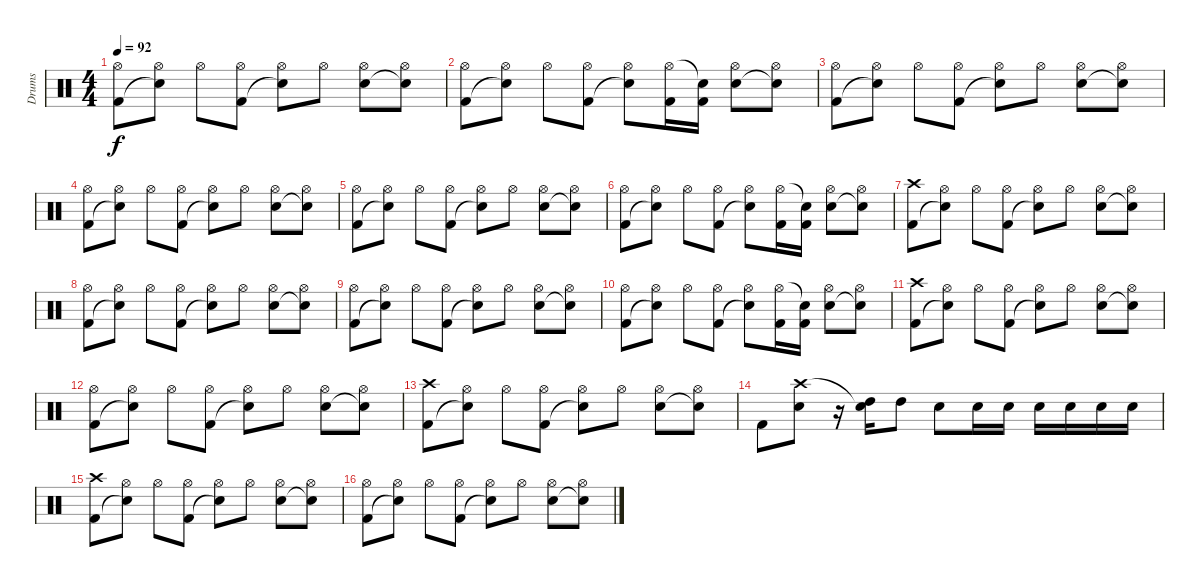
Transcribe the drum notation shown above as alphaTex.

\track ("Drums" "Drums") {instrument percussion}
\staff {score}
\articulation defaults
\ts (4 4)
\tempo 92
\clef neutral
\ks c
("Hi-Hat (open)" "Kick (hit) 2").8{dy f} ("Hi-Hat (open)" "Snare (hit)"{t}).8 "Hi-Hat (open)".8 ("Hi-Hat (open)" "Kick (hit) 2").8 ("Hi-Hat (open)" "Snare (hit)"{t}).8 "Hi-Hat (open)".8 ("Hi-Hat (open)" "Snare (hit) 2").8 ("Hi-Hat (open)" "Snare (hit)"{t}).8 |
("Hi-Hat (open)" "Kick (hit) 2").8 ("Hi-Hat (open)" "Snare (hit)"{t}).8 "Hi-Hat (open)".8 ("Hi-Hat (open)" "Kick (hit) 2").8 ("Hi-Hat (open)" "Snare (hit)"{t}).8 ("Hi-Hat (open)" "Kick (hit) 2").16 ("Snare (hit)"{t} "Kick (hit) 2").16 ("Hi-Hat (open)" "Snare (hit) 2").8 ("Hi-Hat (open)" "Snare (hit)"{t}).8 |
("Hi-Hat (open)" "Kick (hit) 2").8 ("Hi-Hat (open)" "Snare (hit)"{t}).8 "Hi-Hat (open)".8 ("Hi-Hat (open)" "Kick (hit) 2").8 ("Hi-Hat (open)" "Snare (hit)"{t}).8 "Hi-Hat (open)".8 ("Hi-Hat (open)" "Snare (hit) 2").8 ("Hi-Hat (open)" "Snare (hit)"{t}).8 |
("Hi-Hat (open)" "Kick (hit) 2").8 ("Hi-Hat (open)" "Snare (hit)"{t}).8 "Hi-Hat (open)".8 ("Hi-Hat (open)" "Kick (hit) 2").8 ("Hi-Hat (open)" "Snare (hit)"{t}).8 "Hi-Hat (open)".8 ("Hi-Hat (open)" "Snare (hit) 2").8 ("Hi-Hat (open)" "Snare (hit)"{t}).8 |
("Hi-Hat (open)" "Kick (hit) 2").8 ("Hi-Hat (open)" "Snare (hit)"{t}).8 "Hi-Hat (open)".8 ("Hi-Hat (open)" "Kick (hit) 2").8 ("Hi-Hat (open)" "Snare (hit)"{t}).8 "Hi-Hat (open)".8 ("Hi-Hat (open)" "Snare (hit) 2").8 ("Hi-Hat (open)" "Snare (hit)"{t}).8 |
("Hi-Hat (open)" "Kick (hit) 2").8 ("Hi-Hat (open)" "Snare (hit)"{t}).8 "Hi-Hat (open)".8 ("Hi-Hat (open)" "Kick (hit) 2").8 ("Hi-Hat (open)" "Snare (hit)"{t}).8 ("Hi-Hat (open)" "Kick (hit) 2").16 ("Snare (hit)"{t} "Kick (hit) 2").16 ("Hi-Hat (open)" "Snare (hit) 2").8 ("Hi-Hat (open)" "Snare (hit)"{t}).8 |
("Crash high (hit)" "Kick (hit) 2").8 ("Hi-Hat (open)" "Snare (hit)"{t}).8 "Hi-Hat (open)".8 ("Hi-Hat (open)" "Kick (hit) 2").8 ("Hi-Hat (open)" "Snare (hit)"{t}).8 "Hi-Hat (open)".8 ("Hi-Hat (open)" "Snare (hit) 2").8 ("Hi-Hat (open)" "Snare (hit)"{t}).8 |
("Hi-Hat (open)" "Kick (hit) 2").8 ("Hi-Hat (open)" "Snare (hit)"{t}).8 "Hi-Hat (open)".8 ("Hi-Hat (open)" "Kick (hit) 2").8 ("Hi-Hat (open)" "Snare (hit)"{t}).8 "Hi-Hat (open)".8 ("Hi-Hat (open)" "Snare (hit) 2").8 ("Hi-Hat (open)" "Snare (hit)"{t}).8 |
("Hi-Hat (open)" "Kick (hit) 2").8 ("Hi-Hat (open)" "Snare (hit)"{t}).8 "Hi-Hat (open)".8 ("Hi-Hat (open)" "Kick (hit) 2").8 ("Hi-Hat (open)" "Snare (hit)"{t}).8 "Hi-Hat (open)".8 ("Hi-Hat (open)" "Snare (hit) 2").8 ("Hi-Hat (open)" "Snare (hit)"{t}).8 |
("Hi-Hat (open)" "Kick (hit) 2").8 ("Hi-Hat (open)" "Snare (hit)"{t}).8 "Hi-Hat (open)".8 ("Hi-Hat (open)" "Kick (hit) 2").8 ("Hi-Hat (open)" "Snare (hit)"{t}).8 ("Hi-Hat (open)" "Kick (hit) 2").16 ("Snare (hit)"{t} "Kick (hit) 2").16 ("Hi-Hat (open)" "Snare (hit) 2").8 ("Hi-Hat (open)" "Snare (hit)"{t}).8 |
("Crash high (hit)" "Kick (hit) 2").8 ("Hi-Hat (open)" "Snare (hit)"{t}).8 "Hi-Hat (open)".8 ("Hi-Hat (open)" "Kick (hit) 2").8 ("Hi-Hat (open)" "Snare (hit)"{t}).8 "Hi-Hat (open)".8 ("Hi-Hat (open)" "Snare (hit) 2").8 ("Hi-Hat (open)" "Snare (hit)"{t}).8 |
("Hi-Hat (open)" "Kick (hit) 2").8 ("Hi-Hat (open)" "Snare (hit)"{t}).8 "Hi-Hat (open)".8 ("Hi-Hat (open)" "Kick (hit) 2").8 ("Hi-Hat (open)" "Snare (hit)"{t}).8 "Hi-Hat (open)".8 ("Hi-Hat (open)" "Snare (hit) 2").8 ("Hi-Hat (open)" "Snare (hit)"{t}).8 |
("Crash high (hit)" "Kick (hit) 2").8 ("Hi-Hat (open)" "Snare (hit)"{t}).8 "Hi-Hat (open)".8 ("Hi-Hat (open)" "Kick (hit) 2").8 ("Hi-Hat (open)" "Snare (hit)"{t}).8 "Hi-Hat (open)".8 ("Hi-Hat (open)" "Snare (hit) 2").8 ("Hi-Hat (open)" "Snare (hit)"{t}).8 |
"Kick (hit) 2".8 ("Crash high (hit)" "Snare (hit) 2").8 r.16 ("Snare (hit)"{t} "High Tom (hit)").16 "High Tom (hit)".8 "Snare (hit) 2".8 "Snare (hit) 2".16 "Snare (hit) 2".16 "Snare (hit) 2".16 "Snare (hit) 2".16 "Snare (hit) 2".16 "Snare (hit) 2".16 |
("Crash high (hit)" "Kick (hit) 2").8 ("Hi-Hat (open)" "Snare (hit)"{t}).8 "Hi-Hat (open)".8 ("Hi-Hat (open)" "Kick (hit) 2").8 ("Hi-Hat (open)" "Snare (hit)"{t}).8 "Hi-Hat (open)".8 ("Hi-Hat (open)" "Snare (hit) 2").8 ("Hi-Hat (open)" "Snare (hit)"{t}).8 |
("Hi-Hat (open)" "Kick (hit) 2").8 ("Hi-Hat (open)" "Snare (hit)"{t}).8 "Hi-Hat (open)".8 ("Hi-Hat (open)" "Kick (hit) 2").8 ("Hi-Hat (open)" "Snare (hit)"{t}).8 "Hi-Hat (open)".8 ("Hi-Hat (open)" "Snare (hit) 2").8 ("Hi-Hat (open)" "Snare (hit)"{t}).8
